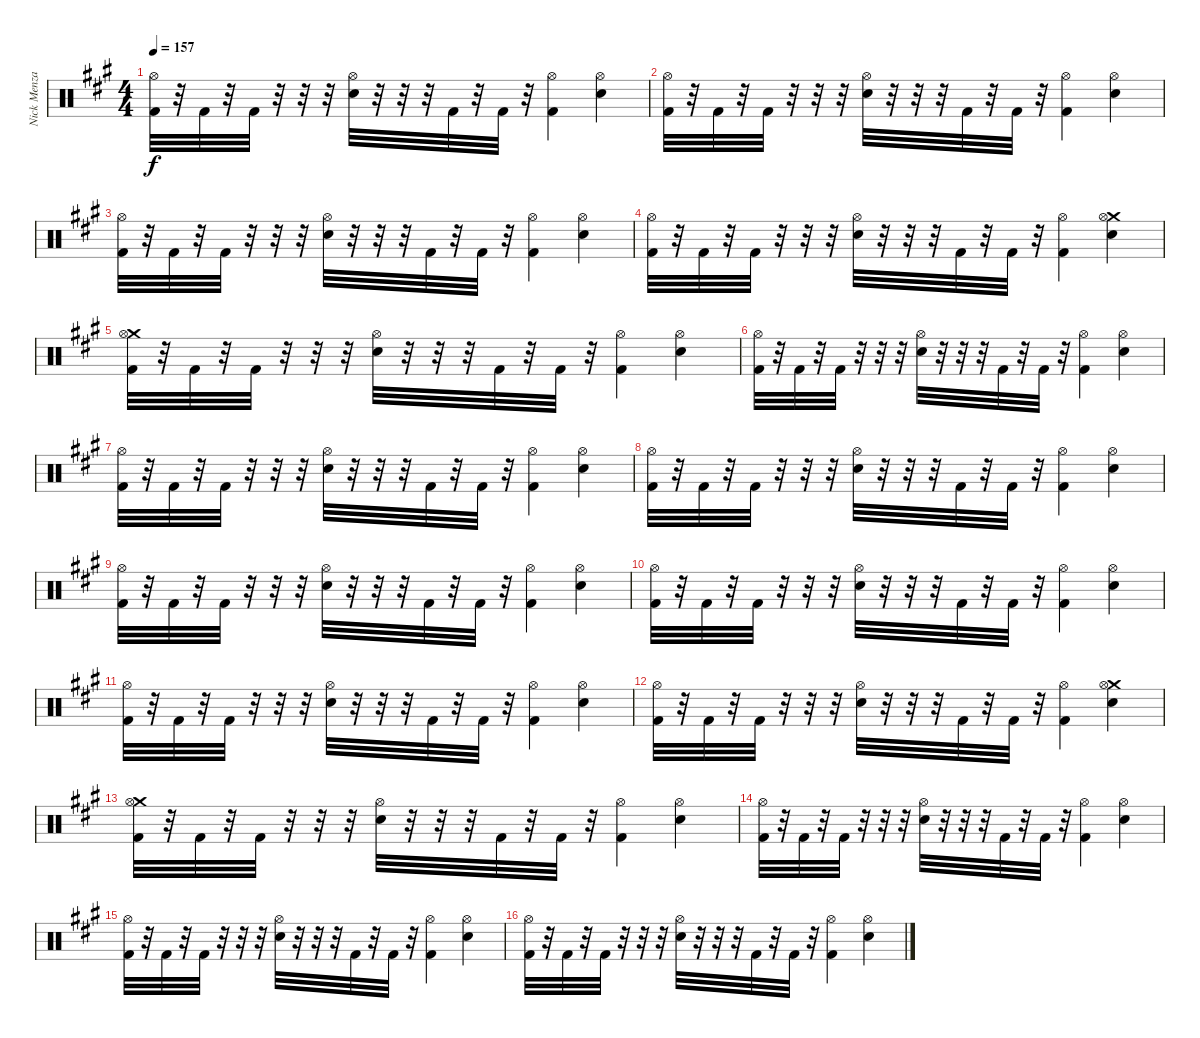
\track ("Nick Menza" "Nick Menza") {instrument percussion}
\staff {score}
\articulation defaults
\ts (4 4)
\tempo 157
\clef neutral
\ks a
("Kick (hit) 2" "Hi-Hat (open)").32{dy f} r.32 "Kick (hit) 2".32 r.32 "Kick (hit) 2".32 r.32 r.32 r.32 ("Snare (hit) 2" "Hi-Hat (open)").32 r.32 r.32 r.32 "Kick (hit) 2".32 r.32 "Kick (hit) 2".32 r.32 ("Kick (hit) 2" "Hi-Hat (open)").4 ("Snare (hit) 2" "Hi-Hat (open)").4 |
("Kick (hit) 2" "Hi-Hat (open)").32 r.32 "Kick (hit) 2".32 r.32 "Kick (hit) 2".32 r.32 r.32 r.32 ("Snare (hit) 2" "Hi-Hat (open)").32 r.32 r.32 r.32 "Kick (hit) 2".32 r.32 "Kick (hit) 2".32 r.32 ("Kick (hit) 2" "Hi-Hat (open)").4 ("Snare (hit) 2" "Hi-Hat (open)").4 |
("Kick (hit) 2" "Hi-Hat (open)").32 r.32 "Kick (hit) 2".32 r.32 "Kick (hit) 2".32 r.32 r.32 r.32 ("Snare (hit) 2" "Hi-Hat (open)").32 r.32 r.32 r.32 "Kick (hit) 2".32 r.32 "Kick (hit) 2".32 r.32 ("Kick (hit) 2" "Hi-Hat (open)").4 ("Snare (hit) 2" "Hi-Hat (open)").4 |
("Kick (hit) 2" "Hi-Hat (open)").32 r.32 "Kick (hit) 2".32 r.32 "Kick (hit) 2".32 r.32 r.32 r.32 ("Snare (hit) 2" "Hi-Hat (open)").32 r.32 r.32 r.32 "Kick (hit) 2".32 r.32 "Kick (hit) 2".32 r.32 ("Kick (hit) 2" "Hi-Hat (open)").4 ("Snare (hit) 2" "Crash medium (hit)" "Hi-Hat (open)").4 |
("Kick (hit) 2" "Crash medium (hit)" "Hi-Hat (open)").32 r.32 "Kick (hit) 2".32 r.32 "Kick (hit) 2".32 r.32 r.32 r.32 ("Snare (hit) 2" "Hi-Hat (open)").32 r.32 r.32 r.32 "Kick (hit) 2".32 r.32 "Kick (hit) 2".32 r.32 ("Kick (hit) 2" "Hi-Hat (open)").4 ("Snare (hit) 2" "Hi-Hat (open)").4 |
("Kick (hit) 2" "Hi-Hat (open)").32 r.32 "Kick (hit) 2".32 r.32 "Kick (hit) 2".32 r.32 r.32 r.32 ("Snare (hit) 2" "Hi-Hat (open)").32 r.32 r.32 r.32 "Kick (hit) 2".32 r.32 "Kick (hit) 2".32 r.32 ("Kick (hit) 2" "Hi-Hat (open)").4 ("Snare (hit) 2" "Hi-Hat (open)").4 |
("Kick (hit) 2" "Hi-Hat (open)").32 r.32 "Kick (hit) 2".32 r.32 "Kick (hit) 2".32 r.32 r.32 r.32 ("Snare (hit) 2" "Hi-Hat (open)").32 r.32 r.32 r.32 "Kick (hit) 2".32 r.32 "Kick (hit) 2".32 r.32 ("Kick (hit) 2" "Hi-Hat (open)").4 ("Snare (hit) 2" "Hi-Hat (open)").4 |
("Kick (hit) 2" "Hi-Hat (open)").32 r.32 "Kick (hit) 2".32 r.32 "Kick (hit) 2".32 r.32 r.32 r.32 ("Snare (hit) 2" "Hi-Hat (open)").32 r.32 r.32 r.32 "Kick (hit) 2".32 r.32 "Kick (hit) 2".32 r.32 ("Kick (hit) 2" "Hi-Hat (open)").4 ("Snare (hit) 2" "Hi-Hat (open)").4 |
("Kick (hit) 2" "Hi-Hat (open)").32 r.32 "Kick (hit) 2".32 r.32 "Kick (hit) 2".32 r.32 r.32 r.32 ("Snare (hit) 2" "Hi-Hat (open)").32 r.32 r.32 r.32 "Kick (hit) 2".32 r.32 "Kick (hit) 2".32 r.32 ("Kick (hit) 2" "Hi-Hat (open)").4 ("Snare (hit) 2" "Hi-Hat (open)").4 |
("Kick (hit) 2" "Hi-Hat (open)").32 r.32 "Kick (hit) 2".32 r.32 "Kick (hit) 2".32 r.32 r.32 r.32 ("Snare (hit) 2" "Hi-Hat (open)").32 r.32 r.32 r.32 "Kick (hit) 2".32 r.32 "Kick (hit) 2".32 r.32 ("Kick (hit) 2" "Hi-Hat (open)").4 ("Snare (hit) 2" "Hi-Hat (open)").4 |
("Kick (hit) 2" "Hi-Hat (open)").32 r.32 "Kick (hit) 2".32 r.32 "Kick (hit) 2".32 r.32 r.32 r.32 ("Snare (hit) 2" "Hi-Hat (open)").32 r.32 r.32 r.32 "Kick (hit) 2".32 r.32 "Kick (hit) 2".32 r.32 ("Kick (hit) 2" "Hi-Hat (open)").4 ("Snare (hit) 2" "Hi-Hat (open)").4 |
("Kick (hit) 2" "Hi-Hat (open)").32 r.32 "Kick (hit) 2".32 r.32 "Kick (hit) 2".32 r.32 r.32 r.32 ("Snare (hit) 2" "Hi-Hat (open)").32 r.32 r.32 r.32 "Kick (hit) 2".32 r.32 "Kick (hit) 2".32 r.32 ("Kick (hit) 2" "Hi-Hat (open)").4 ("Snare (hit) 2" "Crash medium (hit)" "Hi-Hat (open)").4 |
("Kick (hit) 2" "Crash medium (hit)" "Hi-Hat (open)").32 r.32 "Kick (hit) 2".32 r.32 "Kick (hit) 2".32 r.32 r.32 r.32 ("Snare (hit) 2" "Hi-Hat (open)").32 r.32 r.32 r.32 "Kick (hit) 2".32 r.32 "Kick (hit) 2".32 r.32 ("Kick (hit) 2" "Hi-Hat (open)").4 ("Snare (hit) 2" "Hi-Hat (open)").4 |
("Kick (hit) 2" "Hi-Hat (open)").32 r.32 "Kick (hit) 2".32 r.32 "Kick (hit) 2".32 r.32 r.32 r.32 ("Snare (hit) 2" "Hi-Hat (open)").32 r.32 r.32 r.32 "Kick (hit) 2".32 r.32 "Kick (hit) 2".32 r.32 ("Kick (hit) 2" "Hi-Hat (open)").4 ("Snare (hit) 2" "Hi-Hat (open)").4 |
("Kick (hit) 2" "Hi-Hat (open)").32 r.32 "Kick (hit) 2".32 r.32 "Kick (hit) 2".32 r.32 r.32 r.32 ("Snare (hit) 2" "Hi-Hat (open)").32 r.32 r.32 r.32 "Kick (hit) 2".32 r.32 "Kick (hit) 2".32 r.32 ("Kick (hit) 2" "Hi-Hat (open)").4 ("Snare (hit) 2" "Hi-Hat (open)").4 |
("Kick (hit) 2" "Hi-Hat (open)").32 r.32 "Kick (hit) 2".32 r.32 "Kick (hit) 2".32 r.32 r.32 r.32 ("Snare (hit) 2" "Hi-Hat (open)").32 r.32 r.32 r.32 "Kick (hit) 2".32 r.32 "Kick (hit) 2".32 r.32 ("Kick (hit) 2" "Hi-Hat (open)").4 ("Snare (hit) 2" "Hi-Hat (open)").4
